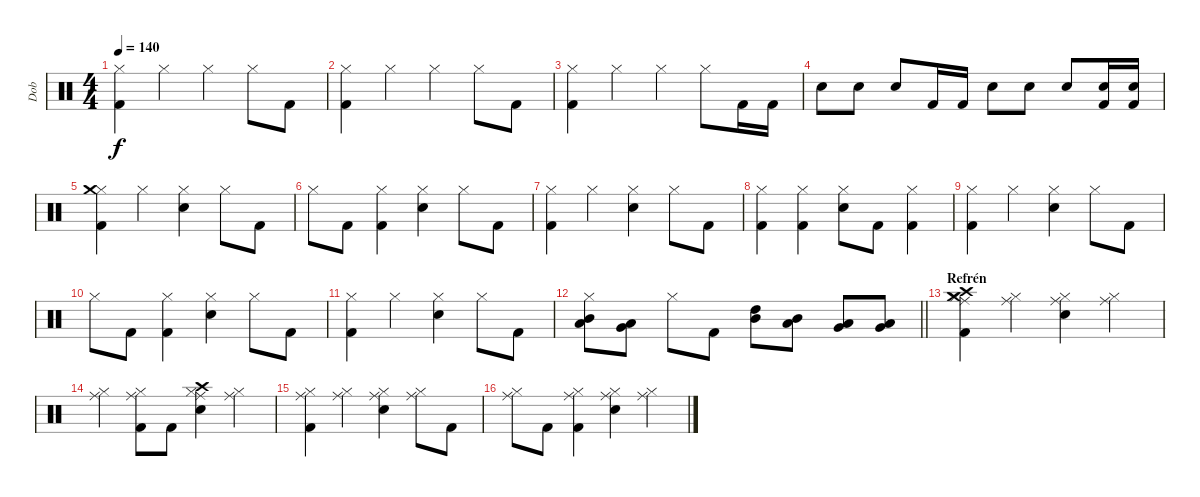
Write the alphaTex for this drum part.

\track ("Dob" "Dob") {instrument percussion}
\staff {score}
\articulation defaults
\ts (4 4)
\tempo 140
\clef neutral
\ks c
("Hi-Hat (closed)" "Kick (hit) 2").4{dy f} "Hi-Hat (closed)".4 "Hi-Hat (closed)".4 "Hi-Hat (closed)".8 "Kick (hit) 2".8 |
("Hi-Hat (closed)" "Kick (hit) 2").4 "Hi-Hat (closed)".4 "Hi-Hat (closed)".4 "Hi-Hat (closed)".8 "Kick (hit) 2".8 |
("Hi-Hat (closed)" "Kick (hit) 2").4 "Hi-Hat (closed)".4 "Hi-Hat (closed)".4 "Hi-Hat (closed)".8 "Kick (hit) 2".16 "Kick (hit) 2".16 |
"Electric Snare (hit)".8 "Electric Snare (hit)".8 "Electric Snare (hit)".8 "Kick (hit) 2".16 "Kick (hit) 2".16 "Electric Snare (hit)".8 "Electric Snare (hit)".8 "Electric Snare (hit)".8 ("Kick (hit) 2" "Electric Snare (hit)").16 ("Kick (hit) 2" "Electric Snare (hit)").16 |
("Hi-Hat (closed)" "Kick (hit) 2" "Crash medium (hit)").4 "Hi-Hat (closed)".4 ("Hi-Hat (closed)" "Electric Snare (hit)").4 "Hi-Hat (closed)".8 "Kick (hit) 2".8 |
"Hi-Hat (closed)".8 "Kick (hit) 2".8 ("Hi-Hat (closed)" "Kick (hit) 2").4 ("Hi-Hat (closed)" "Electric Snare (hit)").4 "Hi-Hat (closed)".8 "Kick (hit) 2".8 |
("Hi-Hat (closed)" "Kick (hit) 2").4 "Hi-Hat (closed)".4 ("Hi-Hat (closed)" "Electric Snare (hit)").4 "Hi-Hat (closed)".8 "Kick (hit) 2".8 |
("Hi-Hat (closed)" "Kick (hit) 2").4 ("Hi-Hat (closed)" "Kick (hit) 2").4 ("Hi-Hat (closed)" "Electric Snare (hit)").8 "Kick (hit) 2".8 ("Hi-Hat (closed)" "Kick (hit) 2").4 |
("Hi-Hat (closed)" "Kick (hit) 2").4 "Hi-Hat (closed)".4 ("Hi-Hat (closed)" "Electric Snare (hit)").4 "Hi-Hat (closed)".8 "Kick (hit) 2".8 |
"Hi-Hat (closed)".8 "Kick (hit) 2".8 ("Hi-Hat (closed)" "Kick (hit) 2").4 ("Hi-Hat (closed)" "Electric Snare (hit)").4 "Hi-Hat (closed)".8 "Kick (hit) 2".8 |
("Hi-Hat (closed)" "Kick (hit) 2").4 "Hi-Hat (closed)".4 ("Hi-Hat (closed)" "Electric Snare (hit)").4 "Hi-Hat (closed)".8 "Kick (hit) 2".8 |
\barLineRight lightlight
("Hi-Hat (closed)" "Mid Tom (hit)" "Low Tom (hit)").8 ("Low Tom (hit)" "Very Low Tom (hit)").8 "Hi-Hat (closed)".8 "Kick (hit) 2".8 ("Mid Tom (hit)" "High Tom (hit)").8 ("Low Tom (hit)" "Mid Tom (hit)").8 ("Very Low Tom (hit)" "Low Tom (hit)").8 ("Low Floor Tom (hit)" "Very Low Tom (hit)").8 |
\section ("" "Refrén")
("Hi-Hat (closed)" "Crash high (hit)" "Kick (hit) 2" "Crash medium (hit)" "Ride (middle)").4 ("Hi-Hat (closed)" "Ride (middle)").4 ("Hi-Hat (closed)" "Electric Snare (hit)" "Ride (middle)").4 ("Hi-Hat (closed)" "Ride (middle)").4 |
("Hi-Hat (closed)" "Ride (middle)").4 ("Hi-Hat (closed)" "Kick (hit) 2" "Ride (middle)").8 "Kick (hit) 2".8 ("Hi-Hat (closed)" "Crash high (hit)" "Electric Snare (hit)" "Ride (middle)").4 ("Hi-Hat (closed)" "Ride (middle)").4 |
("Hi-Hat (closed)" "Kick (hit) 2" "Ride (middle)").4 ("Hi-Hat (closed)" "Ride (middle)").4 ("Hi-Hat (closed)" "Electric Snare (hit)" "Ride (middle)").4 ("Hi-Hat (closed)" "Ride (middle)").8 "Kick (hit) 2".8 |
("Hi-Hat (closed)" "Ride (middle)").8 "Kick (hit) 2".8 ("Hi-Hat (closed)" "Kick (hit) 2" "Ride (middle)").4 ("Hi-Hat (closed)" "Electric Snare (hit)" "Ride (middle)").4 ("Hi-Hat (closed)" "Ride (middle)").4
